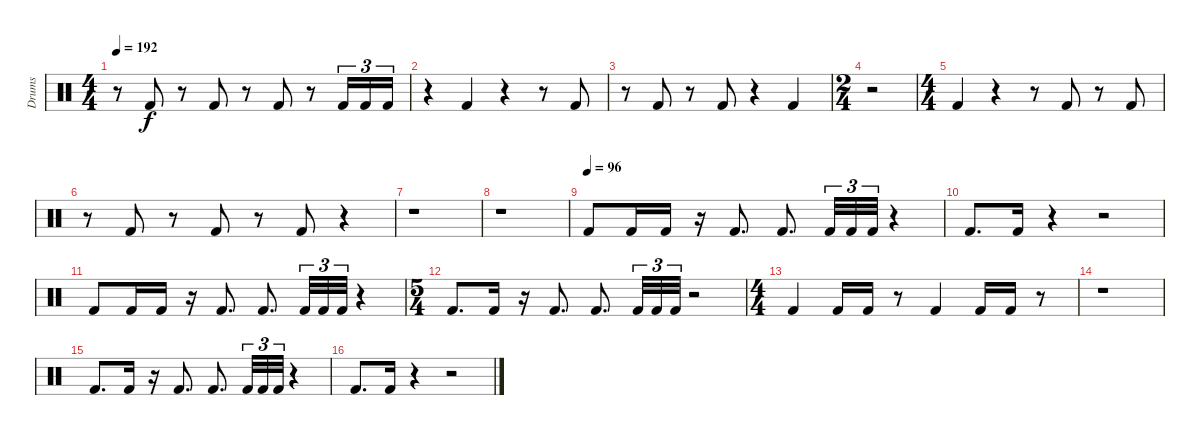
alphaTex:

\track ("Drums" "Drums") {instrument percussion}
\staff {score}
\articulation defaults
\ts (4 4)
\tempo 192
\clef neutral
\ks c
r.8{dy f} "Kick (hit) 2".8 r.8 "Kick (hit) 2".8 r.8 "Kick (hit) 2".8 r.8 "Kick (hit) 2".16{tu (3 2)} "Kick (hit) 2".16{tu (3 2)} "Kick (hit) 2".16{tu (3 2)} |
r.4 "Kick (hit) 2".4 r.4 r.8 "Kick (hit) 2".8 |
r.8 "Kick (hit) 2".8 r.8 "Kick (hit) 2".8 r.4 "Kick (hit) 2".4 |
\ts (2 4)
r.2 |
\ts (4 4)
"Kick (hit) 2".4 r.4 r.8 "Kick (hit) 2".8 r.8 "Kick (hit) 2".8 |
r.8 "Kick (hit) 2".8 r.8 "Kick (hit) 2".8 r.8 "Kick (hit) 2".8 r.4 |
r.1 |
r.1 |
\tempo (96)
"Kick (hit) 2".8 "Kick (hit) 2".16 "Kick (hit) 2".16 r.16 "Kick (hit) 2".8{d} "Kick (hit) 2".8{d} "Kick (hit) 2".32{tu (3 2)} "Kick (hit) 2".32{tu (3 2)} "Kick (hit) 2".32{tu (3 2)} r.4 |
"Kick (hit) 2".8{d} "Kick (hit) 2".16 r.4 r.2 |
"Kick (hit) 2".8 "Kick (hit) 2".16 "Kick (hit) 2".16 r.16 "Kick (hit) 2".8{d} "Kick (hit) 2".8{d} "Kick (hit) 2".32{tu (3 2)} "Kick (hit) 2".32{tu (3 2)} "Kick (hit) 2".32{tu (3 2)} r.4 |
\ts (5 4)
"Kick (hit) 2".8{d} "Kick (hit) 2".16 r.16 "Kick (hit) 2".8{d} "Kick (hit) 2".8{d} "Kick (hit) 2".32{tu (3 2)} "Kick (hit) 2".32{tu (3 2)} "Kick (hit) 2".32{tu (3 2)} r.2 |
\ts (4 4)
"Kick (hit) 2".4 "Kick (hit) 2".16 "Kick (hit) 2".16 r.8 "Kick (hit) 2".4 "Kick (hit) 2".16 "Kick (hit) 2".16 r.8 |
r.1 |
"Kick (hit) 2".8{d} "Kick (hit) 2".16 r.16 "Kick (hit) 2".8{d} "Kick (hit) 2".8{d} "Kick (hit) 2".32{tu (3 2)} "Kick (hit) 2".32{tu (3 2)} "Kick (hit) 2".32{tu (3 2)} r.4 |
"Kick (hit) 2".8{d} "Kick (hit) 2".16 r.4 r.2
